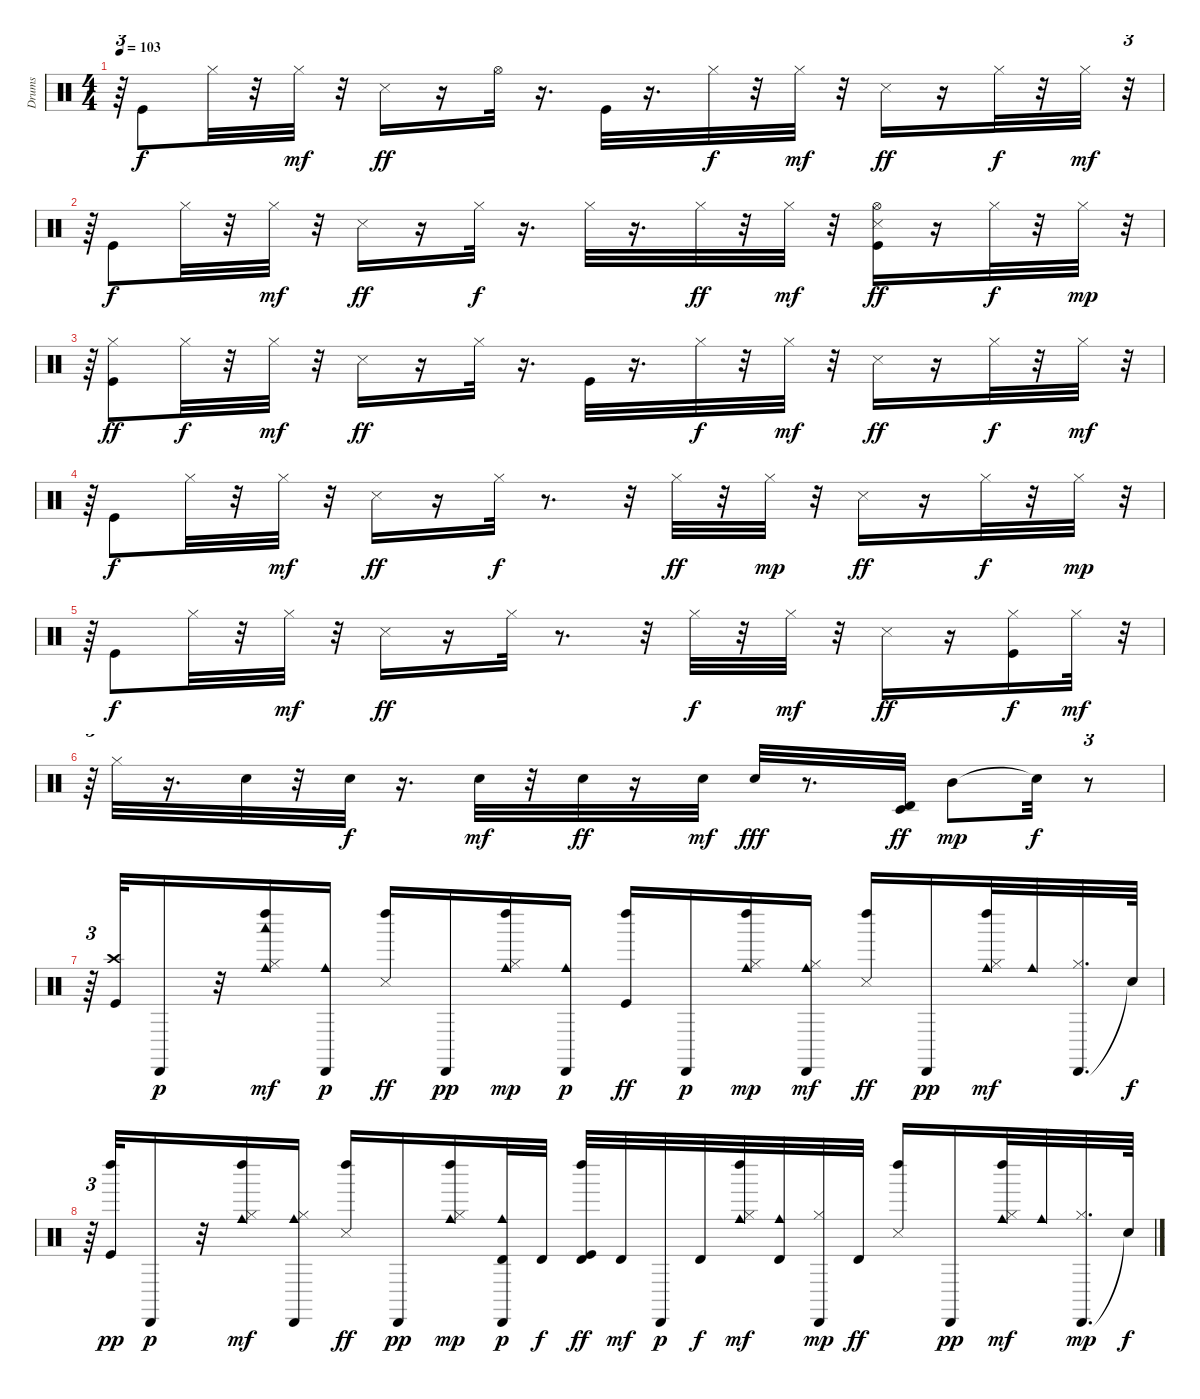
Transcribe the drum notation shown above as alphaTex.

\track ("Drums" "Drums") {instrument percussion}
\staff {score}
\articulation defaults
\ts (4 4)
\tempo 103
\clef neutral
\ks c
r.64{tu (3 2) dy f} "Kick (hit)".8 "Hi-Hat (closed)".32 r.32 "Hi-Hat (closed)".32{dy mf} r.32 "Snare (side stick) 3".16{dy ff} r.16 "Hi-Hat (open)".32 r.16{d} "Kick (hit)".32 r.16{d} "Hi-Hat (closed)".32{dy f} r.32 "Hi-Hat (closed)".32{dy mf} r.32 "Snare (side stick) 3".16{dy ff} r.16 "Hi-Hat (closed)".32{dy f} r.32 "Hi-Hat (closed)".32{dy mf} r.32{tu (3 2)} |
r.64{tu (3 2)} "Kick (hit)".8{dy f} "Hi-Hat (closed)".32 r.32 "Hi-Hat (closed)".32{dy mf} r.32 "Snare (side stick) 3".16{dy ff} r.16 "Hi-Hat (closed)".32{dy f} r.16{d} "Hi-Hat (closed)".32 r.16{d} "Hi-Hat (closed)".32{dy ff} r.32 "Hi-Hat (closed)".32{dy mf} r.32 ("Hi-Hat (open)" "Kick (hit)" "Snare (side stick) 3").16{dy ff} r.16 "Hi-Hat (closed)".32{dy f} r.32 "Hi-Hat (closed)".32{dy mp} r.32{tu (3 2)} |
r.64{tu (3 2)} ("Kick (hit)" "Hi-Hat (closed)").8{dy ff} "Hi-Hat (closed)".32{dy f} r.32 "Hi-Hat (closed)".32{dy mf} r.32 "Snare (side stick) 3".16{dy ff} r.16 "Hi-Hat (closed)".32 r.16{d} "Kick (hit)".32 r.16{d} "Hi-Hat (closed)".32{dy f} r.32 "Hi-Hat (closed)".32{dy mf} r.32 "Snare (side stick) 3".16{dy ff} r.16 "Hi-Hat (closed)".32{dy f} r.32 "Hi-Hat (closed)".32{dy mf} r.32{tu (3 2)} |
r.64{tu (3 2)} "Kick (hit)".8{dy f} "Hi-Hat (closed)".32 r.32 "Hi-Hat (closed)".32{dy mf} r.32 "Snare (side stick) 3".16{dy ff} r.16 "Hi-Hat (closed)".32{dy f} r.8{d} r.32 "Hi-Hat (closed)".32{dy ff} r.32 "Hi-Hat (closed)".32{dy mp} r.32 "Snare (side stick) 3".16{dy ff} r.16 "Hi-Hat (closed)".32{dy f} r.32 "Hi-Hat (closed)".32{dy mp} r.32{tu (3 2)} |
r.64{tu (3 2)} "Kick (hit)".8{dy f} "Hi-Hat (closed)".32 r.32 "Hi-Hat (closed)".32{dy mf} r.32 "Snare (side stick) 3".16{dy ff} r.16 "Hi-Hat (closed)".32 r.8{d} r.32 "Hi-Hat (closed)".32{dy f} r.32 "Hi-Hat (closed)".32{dy mf} r.32 "Snare (side stick) 3".16{dy ff} r.16 ("Kick (hit)" "Hi-Hat (closed)").16{dy f} "Hi-Hat (closed)".32{dy mf} r.32{tu (3 2)} |
r.64{tu (3 2)} "Hi-Hat (closed)".32 r.16{d} "Electric Snare (hit)".32 r.32 "Electric Snare (hit)".32{dy f} r.16{d} "Electric Snare (hit)".32{dy mf} r.32 "Electric Snare (hit)".32{dy ff} r.16 "Electric Snare (hit)".32{dy mf} "Electric Snare (hit)".32{dy fff} r.8{d} ("Timbale high (hit)" "Timbale low (hit)").32{dy ff} "Mid Tom (hit)".8{dy mp} "Snare (hit)"{t}.32{dy f} r.8{tu (3 2)} |
r.64{tu (3 2)} ("Crash high (hit)" "Kick (hit)").32 "Cabasa (hit)".16{dy p} r.32 ("Left Maraca (hit)" "Hi-Hat (closed)" "Cowbell medium (hit)" "Woodblock low (hit)").16{dy mf} ("Cowbell medium (hit)" "Cabasa (hit)").16{dy p} ("Left Maraca (hit)" "Snare (side stick) 3").16{dy ff} "Cabasa (hit)".16{dy pp} ("Left Maraca (hit)" "Hi-Hat (closed)" "Cowbell medium (hit)").16{dy mp} ("Cowbell medium (hit)" "Cabasa (hit)").16{dy p} ("Left Maraca (hit)" "Kick (hit)").16{dy ff} "Cabasa (hit)".16{dy p} ("Left Maraca (hit)" "Hi-Hat (closed)" "Cowbell medium (hit)").16{dy mp} ("Cowbell medium (hit)" "Cabasa (hit)" "Hi-Hat (closed)").16{dy mf} ("Left Maraca (hit)" "Snare (side stick) 3").16{dy ff} "Cabasa (hit)".16{dy pp} ("Left Maraca (hit)" "Hi-Hat (closed)" "Cowbell medium (hit)").32{dy mf} "Cowbell medium (hit)".32 ("Cabasa (hit)" "Hi-Hat (closed)").32{d} "Snare (hit)"{t}.64{dy f} |
r.64{tu (3 2)} ("Left Maraca (hit)" "Kick (hit)").32{dy pp} "Cabasa (hit)".16{dy p} r.32 ("Left Maraca (hit)" "Hi-Hat (closed)" "Cowbell medium (hit)").16{dy mf} ("Cowbell medium (hit)" "Cabasa (hit)" "Hi-Hat (closed)").16 ("Left Maraca (hit)" "Snare (side stick) 3").16{dy ff} "Cabasa (hit)".16{dy pp} ("Left Maraca (hit)" "Hi-Hat (closed)" "Cowbell medium (hit)").16{dy mp} ("Timbale high (hit)" "Cowbell medium (hit)" "Cabasa (hit)").32{dy p} "Timbale high (hit)".32{dy f} ("Timbale high (hit)" "Left Maraca (hit)" "Kick (hit)").32{dy ff} "Timbale high (hit)".32{dy mf} "Cabasa (hit)".32{dy p} "Timbale high (hit)".32{dy f} ("Left Maraca (hit)" "Hi-Hat (closed)" "Cowbell medium (hit)").32{dy mf} ("Timbale high (hit)" "Cowbell medium (hit)").32 ("Cabasa (hit)" "Hi-Hat (closed)").32{dy mp} "Timbale high (hit)".32{dy ff} ("Left Maraca (hit)" "Snare (side stick) 3").16 "Cabasa (hit)".16{dy pp} ("Left Maraca (hit)" "Hi-Hat (closed)" "Cowbell medium (hit)").32{dy mf} "Cowbell medium (hit)".32 ("Cabasa (hit)" "Hi-Hat (closed)").32{d dy mp} "Snare (hit)"{t}.64{dy f}
